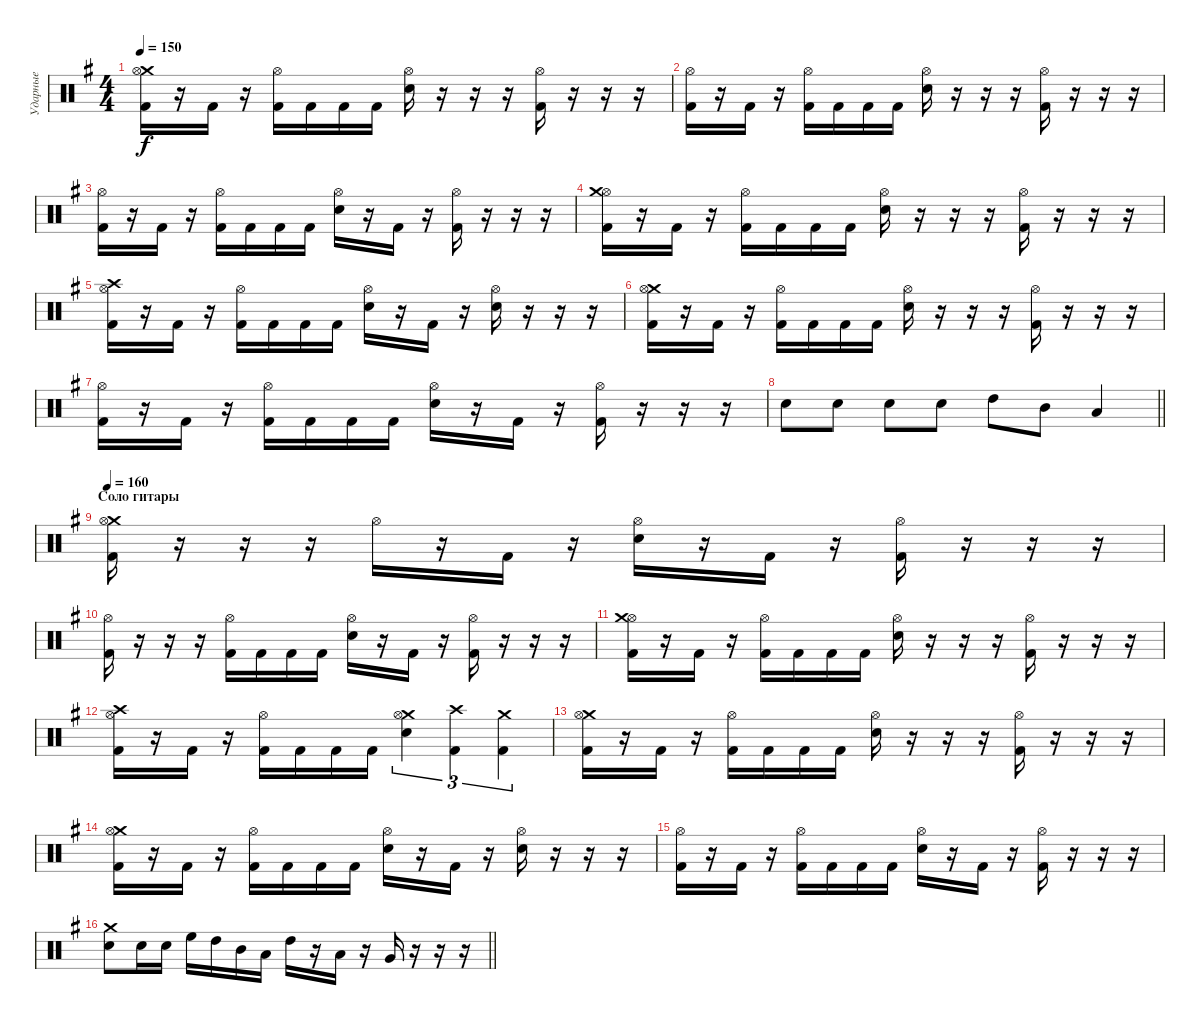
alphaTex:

\track ("Ударные" "Ударные") {instrument percussion}
\staff {score}
\articulation defaults
\ts (4 4)
\tempo 150
\clef neutral
\ks eminor
("Crash medium (hit)" "Kick (hit) 2" "Hi-Hat (open)").16{dy f} r.16 "Kick (hit) 2".16 r.16 ("Kick (hit) 2" "Hi-Hat (open)").16 "Kick (hit) 2".16 "Kick (hit) 2".16 "Kick (hit) 2".16 ("Electric Snare (hit)" "Hi-Hat (open)").16 r.16 r.16 r.16 ("Kick (hit) 2" "Hi-Hat (open)").16 r.16 r.16 r.16 |
("Kick (hit) 2" "Hi-Hat (open)").16 r.16 "Kick (hit) 2".16 r.16 ("Kick (hit) 2" "Hi-Hat (open)").16 "Kick (hit) 2".16 "Kick (hit) 2".16 "Kick (hit) 2".16 ("Electric Snare (hit)" "Hi-Hat (open)").16 r.16 r.16 r.16 ("Kick (hit) 2" "Hi-Hat (open)").16 r.16 r.16 r.16 |
("Kick (hit) 2" "Hi-Hat (open)").16 r.16 "Kick (hit) 2".16 r.16 ("Kick (hit) 2" "Hi-Hat (open)").16 "Kick (hit) 2".16 "Kick (hit) 2".16 "Kick (hit) 2".16 ("Electric Snare (hit)" "Hi-Hat (open)").16 r.16 "Kick (hit) 2".16 r.16 ("Kick (hit) 2" "Hi-Hat (open)").16 r.16 r.16 r.16 |
("Kick (hit) 2" "Hi-Hat (open)" "Crash medium (hit)").16 r.16 "Kick (hit) 2".16 r.16 ("Kick (hit) 2" "Hi-Hat (open)").16 "Kick (hit) 2".16 "Kick (hit) 2".16 "Kick (hit) 2".16 ("Electric Snare (hit)" "Hi-Hat (open)").16 r.16 r.16 r.16 ("Kick (hit) 2" "Hi-Hat (open)").16 r.16 r.16 r.16 |
("Kick (hit) 2" "Hi-Hat (open)" "Crash high (hit)").16 r.16 "Kick (hit) 2".16 r.16 ("Kick (hit) 2" "Hi-Hat (open)").16 "Kick (hit) 2".16 "Kick (hit) 2".16 "Kick (hit) 2".16 ("Electric Snare (hit)" "Hi-Hat (open)").16 r.16 "Kick (hit) 2".16 r.16 ("Electric Snare (hit)" "Hi-Hat (open)").16 r.16 r.16 r.16 |
("Crash medium (hit)" "Kick (hit) 2" "Hi-Hat (open)").16 r.16 "Kick (hit) 2".16 r.16 ("Kick (hit) 2" "Hi-Hat (open)").16 "Kick (hit) 2".16 "Kick (hit) 2".16 "Kick (hit) 2".16 ("Electric Snare (hit)" "Hi-Hat (open)").16 r.16 r.16 r.16 ("Kick (hit) 2" "Hi-Hat (open)").16 r.16 r.16 r.16 |
("Kick (hit) 2" "Hi-Hat (open)").16 r.16 "Kick (hit) 2".16 r.16 ("Kick (hit) 2" "Hi-Hat (open)").16 "Kick (hit) 2".16 "Kick (hit) 2".16 "Kick (hit) 2".16 ("Electric Snare (hit)" "Hi-Hat (open)").16 r.16 "Kick (hit) 2".16 r.16 ("Kick (hit) 2" "Hi-Hat (open)").16 r.16 r.16 r.16 |
\barLineRight lightlight "Electric Snare (hit)".8 "Electric Snare (hit)".8 "Electric Snare (hit)".8 "Electric Snare (hit)".8 "High Tom (hit)".8 "Mid Tom (hit)".8 "Low Tom (hit)".4
|
\section ("" "Соло гитары")
\tempo 160
("Crash medium (hit)" "Kick (hit) 2" "Hi-Hat (open)").16 r.16 r.16 r.16 "Hi-Hat (open)".16 r.16 "Kick (hit) 2".16 r.16 ("Electric Snare (hit)" "Hi-Hat (open)").16 r.16 "Kick (hit) 2".16 r.16 ("Kick (hit) 2" "Hi-Hat (open)").16 r.16 r.16 r.16 |
("Kick (hit) 2" "Hi-Hat (open)").16 r.16 r.16 r.16 ("Kick (hit) 2" "Hi-Hat (open)").16 "Kick (hit) 2".16 "Kick (hit) 2".16 "Kick (hit) 2".16 ("Electric Snare (hit)" "Hi-Hat (open)").16 r.16 "Kick (hit) 2".16 r.16 ("Kick (hit) 2" "Hi-Hat (open)").16 r.16 r.16 r.16 |
("Kick (hit) 2" "Hi-Hat (open)" "Crash medium (hit)").16 r.16 "Kick (hit) 2".16 r.16 ("Kick (hit) 2" "Hi-Hat (open)").16 "Kick (hit) 2".16 "Kick (hit) 2".16 "Kick (hit) 2".16 ("Electric Snare (hit)" "Hi-Hat (open)").16 r.16 r.16 r.16 ("Kick (hit) 2" "Hi-Hat (open)").16 r.16 r.16 r.16 |
("Kick (hit) 2" "Hi-Hat (open)" "Crash high (hit)").16 r.16 "Kick (hit) 2".16 r.16 ("Kick (hit) 2" "Hi-Hat (open)").16 "Kick (hit) 2".16 "Kick (hit) 2".16 "Kick (hit) 2".16 ("Crash medium (hit)" "Electric Snare (hit)" "Hi-Hat (open)").4{tu (3 2)} ("Crash high (hit)" "Kick (hit) 2").4{tu (3 2)} ("Crash medium (hit)" "Kick (hit) 2").4{tu (3 2)} |
("Crash medium (hit)" "Kick (hit) 2" "Hi-Hat (open)").16 r.16 "Kick (hit) 2".16 r.16 ("Kick (hit) 2" "Hi-Hat (open)").16 "Kick (hit) 2".16 "Kick (hit) 2".16 "Kick (hit) 2".16 ("Electric Snare (hit)" "Hi-Hat (open)").16 r.16 r.16 r.16 ("Kick (hit) 2" "Hi-Hat (open)").16 r.16 r.16 r.16 |
("Crash medium (hit)" "Kick (hit) 2" "Hi-Hat (open)").16 r.16 "Kick (hit) 2".16 r.16 ("Kick (hit) 2" "Hi-Hat (open)").16 "Kick (hit) 2".16 "Kick (hit) 2".16 "Kick (hit) 2".16 ("Electric Snare (hit)" "Hi-Hat (open)").16 r.16 "Kick (hit) 2".16 r.16 ("Electric Snare (hit)" "Hi-Hat (open)").16 r.16 r.16 r.16 |
("Kick (hit) 2" "Hi-Hat (open)").16 r.16 "Kick (hit) 2".16 r.16 ("Kick (hit) 2" "Hi-Hat (open)").16 "Kick (hit) 2".16 "Kick (hit) 2".16 "Kick (hit) 2".16 ("Electric Snare (hit)" "Hi-Hat (open)").16 r.16 "Kick (hit) 2".16 r.16 ("Kick (hit) 2" "Hi-Hat (open)").16 r.16 r.16 r.16 |
\barLineRight lightlight
("Crash medium (hit)" "Electric Snare (hit)").8 "Electric Snare (hit)".16 "Electric Snare (hit)".16 "High Floor Tom (hit)".16 "High Tom (hit)".16 "Mid Tom (hit)".16 "Low Tom (hit)".16 "High Tom (hit)".16 r.16 "Low Tom (hit)".16 r.16 "Very Low Tom (hit)".16 r.16 r.16 r.16
